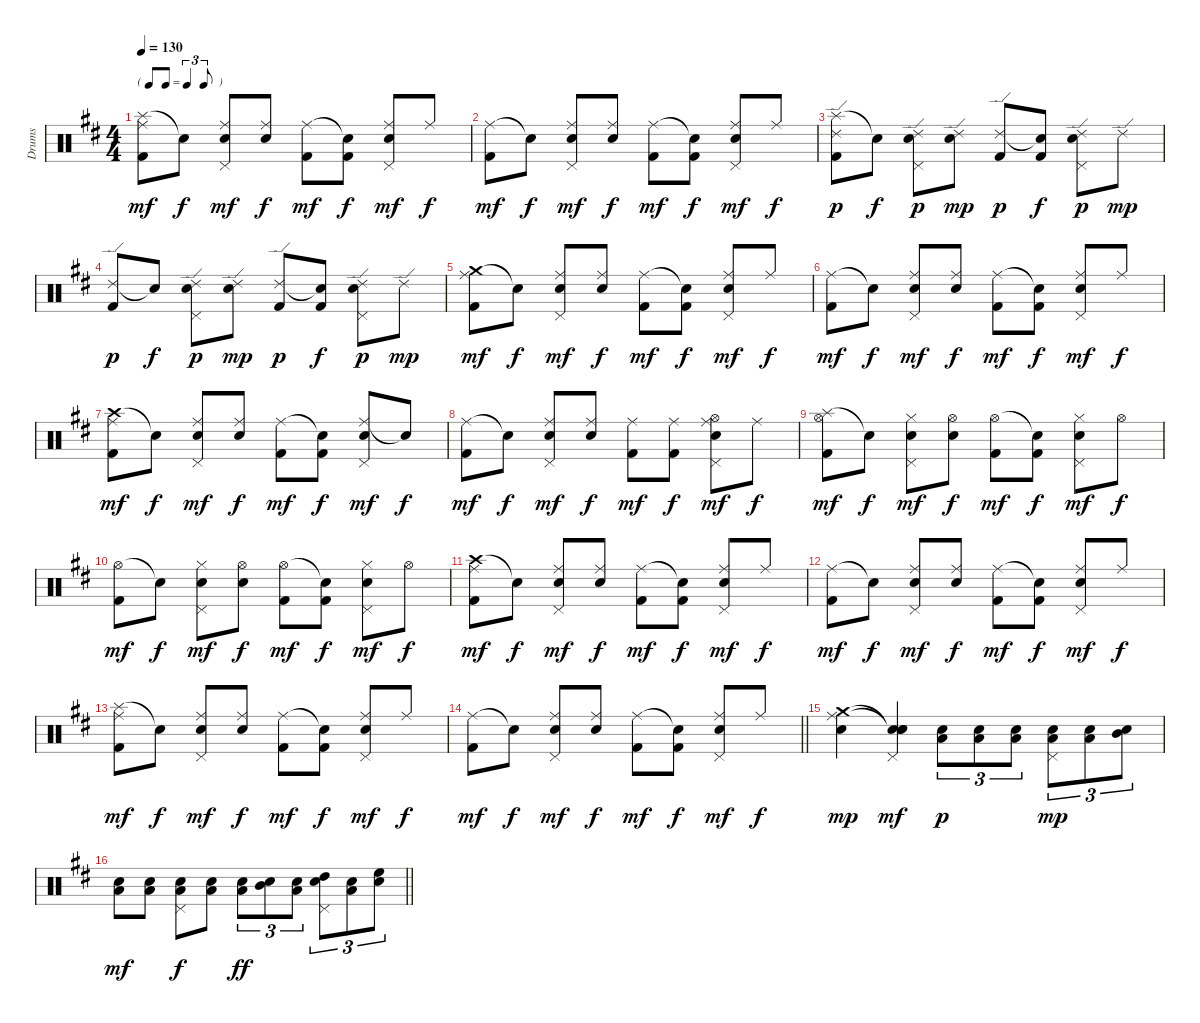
\track ("Drums" "Drums") {instrument percussion}
\staff {score}
\articulation defaults
\ts (4 4)
\tf triplet8th
\tempo 130
\clef neutral
\ks d
("Splash (hit)" "Ride (middle)" "Kick (hit) 2").8{dy mf} "Snare (hit)"{t}.8{dy f} ("Ride (middle)" "Pedal Hi-Hat (hit)" "Snare (hit) 2").8{dy mf} ("Ride (middle)" "Snare (hit) 2").8{dy f} ("Ride (middle)" "Kick (hit) 2").8{dy mf} ("Snare (hit)"{t} "Kick (hit) 2").8{dy f} ("Ride (middle)" "Pedal Hi-Hat (hit)" "Snare (hit) 2").8{dy mf} "Ride (middle)".8{dy f} |
("Ride (middle)" "Kick (hit) 2").8{dy mf} "Snare (hit)"{t}.8{dy f} ("Ride (middle)" "Pedal Hi-Hat (hit)" "Snare (hit) 2").8{dy mf} ("Ride (middle)" "Snare (hit) 2").8{dy f} ("Ride (middle)" "Kick (hit) 2").8{dy mf} ("Snare (hit)"{t} "Kick (hit) 2").8{dy f} ("Ride (middle)" "Pedal Hi-Hat (hit)" "Snare (hit) 2").8{dy mf} "Ride (middle)".8{dy f} |
("Splash (hit)" "Ride (edge) 2" "Kick (hit) 2").8{dy p} "Snare (hit)"{t}.8{dy f} ("Ride (edge) 2" "Pedal Hi-Hat (hit)" "Snare (hit) 2").8{dy p} ("Ride (edge) 2" "Snare (hit) 2").8{dy mp} ("Ride (edge) 2" "Kick (hit) 2").8{dy p} ("Snare (hit)"{t} "Kick (hit) 2").8{dy f} ("Ride (edge) 2" "Pedal Hi-Hat (hit)" "Snare (hit) 2").8{dy p} "Ride (edge) 2".8{dy mp} |
("Ride (edge) 2" "Kick (hit) 2").8{dy p} "Snare (hit)"{t}.8{dy f} ("Ride (edge) 2" "Pedal Hi-Hat (hit)" "Snare (hit) 2").8{dy p} ("Ride (edge) 2" "Snare (hit) 2").8{dy mp} ("Ride (edge) 2" "Kick (hit) 2").8{dy p} ("Snare (hit)"{t} "Kick (hit) 2").8{dy f} ("Ride (edge) 2" "Pedal Hi-Hat (hit)" "Snare (hit) 2").8{dy p} "Ride (edge) 2".8{dy mp} |
("Crash medium (hit)" "Ride (middle)" "Kick (hit) 2").8{dy mf} "Snare (hit)"{t}.8{dy f} ("Ride (middle)" "Pedal Hi-Hat (hit)" "Snare (hit) 2").8{dy mf} ("Ride (middle)" "Snare (hit) 2").8{dy f} ("Ride (middle)" "Kick (hit) 2").8{dy mf} ("Snare (hit)"{t} "Kick (hit) 2").8{dy f} ("Ride (middle)" "Pedal Hi-Hat (hit)" "Snare (hit) 2").8{dy mf} "Ride (middle)".8{dy f} |
("Ride (middle)" "Kick (hit) 2").8{dy mf} "Snare (hit)"{t}.8{dy f} ("Ride (middle)" "Pedal Hi-Hat (hit)" "Snare (hit) 2").8{dy mf} ("Ride (middle)" "Snare (hit) 2").8{dy f} ("Ride (middle)" "Kick (hit) 2").8{dy mf} ("Snare (hit)"{t} "Kick (hit) 2").8{dy f} ("Ride (middle)" "Pedal Hi-Hat (hit)" "Snare (hit) 2").8{dy mf} "Ride (middle)".8{dy f} |
("Crash high (hit)" "Ride (middle)" "Kick (hit) 2").8{dy mf} "Snare (hit)"{t}.8{dy f} ("Ride (middle)" "Pedal Hi-Hat (hit)" "Snare (hit) 2").8{dy mf} ("Ride (middle)" "Snare (hit) 2").8{dy f} ("Ride (middle)" "Kick (hit) 2").8{dy mf} ("Snare (hit)"{t} "Kick (hit) 2").8{dy f} ("Ride (middle)" "Pedal Hi-Hat (hit)" "Snare (hit) 2").8{dy mf} "Snare (hit)"{t}.8{dy f} |
("Ride (middle)" "Kick (hit) 2").8{dy mf} "Snare (hit)"{t}.8{dy f} ("Ride (middle)" "Pedal Hi-Hat (hit)" "Snare (hit) 2").8{dy mf} ("Ride (middle)" "Snare (hit) 2").8{dy f} ("Ride (middle)" "Kick (hit) 2").8{dy mf} ("Ride (middle)" "Kick (hit) 2").8{dy f} ("Hi-Hat (open)" "Ride (middle)" "Pedal Hi-Hat (hit)" "Snare (hit) 2").8{dy mf} "Ride (middle)".8{dy f} |
("Splash (hit)" "Hi-Hat (open)" "Kick (hit) 2").8{dy mf} "Snare (hit)"{t}.8{dy f} ("Hi-Hat (closed)" "Pedal Hi-Hat (hit)" "Snare (hit) 2").8{dy mf} ("Hi-Hat (open)" "Snare (hit) 2").8{dy f} ("Hi-Hat (open)" "Kick (hit) 2").8{dy mf} ("Snare (hit)"{t} "Kick (hit) 2").8{dy f} ("Hi-Hat (closed)" "Pedal Hi-Hat (hit)" "Snare (hit) 2").8{dy mf} "Hi-Hat (open)".8{dy f} |
("Hi-Hat (open)" "Kick (hit) 2").8{dy mf} "Snare (hit)"{t}.8{dy f} ("Hi-Hat (closed)" "Pedal Hi-Hat (hit)" "Snare (hit) 2").8{dy mf} ("Hi-Hat (open)" "Snare (hit) 2").8{dy f} ("Hi-Hat (open)" "Kick (hit) 2").8{dy mf} ("Snare (hit)"{t} "Kick (hit) 2").8{dy f} ("Hi-Hat (closed)" "Pedal Hi-Hat (hit)" "Snare (hit) 2").8{dy mf} "Hi-Hat (open)".8{dy f} |
("Crash high (hit)" "Ride (middle)" "Kick (hit) 2").8{dy mf} "Snare (hit)"{t}.8{dy f} ("Ride (middle)" "Pedal Hi-Hat (hit)" "Snare (hit) 2").8{dy mf} ("Ride (middle)" "Snare (hit) 2").8{dy f} ("Ride (middle)" "Kick (hit) 2").8{dy mf} ("Snare (hit)"{t} "Kick (hit) 2").8{dy f} ("Ride (middle)" "Pedal Hi-Hat (hit)" "Snare (hit) 2").8{dy mf} "Ride (middle)".8{dy f} |
("Ride (middle)" "Kick (hit) 2").8{dy mf} "Snare (hit)"{t}.8{dy f} ("Ride (middle)" "Pedal Hi-Hat (hit)" "Snare (hit) 2").8{dy mf} ("Ride (middle)" "Snare (hit) 2").8{dy f} ("Ride (middle)" "Kick (hit) 2").8{dy mf} ("Snare (hit)"{t} "Kick (hit) 2").8{dy f} ("Ride (middle)" "Pedal Hi-Hat (hit)" "Snare (hit) 2").8{dy mf} "Ride (middle)".8{dy f} |
("Splash (hit)" "Ride (middle)" "Kick (hit) 2").8{dy mf} "Snare (hit)"{t}.8{dy f} ("Ride (middle)" "Pedal Hi-Hat (hit)" "Snare (hit) 2").8{dy mf} ("Ride (middle)" "Snare (hit) 2").8{dy f} ("Ride (middle)" "Kick (hit) 2").8{dy mf} ("Snare (hit)"{t} "Kick (hit) 2").8{dy f} ("Ride (middle)" "Pedal Hi-Hat (hit)" "Snare (hit) 2").8{dy mf} "Ride (middle)".8{dy f} |
\barLineRight lightlight
("Ride (middle)" "Kick (hit) 2").8{dy mf} "Snare (hit)"{t}.8{dy f} ("Ride (middle)" "Pedal Hi-Hat (hit)" "Snare (hit) 2").8{dy mf} ("Ride (middle)" "Snare (hit) 2").8{dy f} ("Ride (middle)" "Kick (hit) 2").8{dy mf} ("Snare (hit)"{t} "Kick (hit) 2").8{dy f} ("Ride (middle)" "Pedal Hi-Hat (hit)" "Snare (hit) 2").8{dy mf} "Ride (middle)".8{dy f} |
("Crash medium (hit)" "Ride (middle)" "Snare (hit) 2").4{dy mp} ("Snare (hit)"{t} "Snare (hit)"{t} "Pedal Hi-Hat (hit)" "Snare (hit)").4{dy mf} ("Low Tom (hit)" "Snare (hit) 2").8{tu (3 2) dy p} ("Low Tom (hit)" "Snare (hit) 2").8{tu (3 2)} ("Low Tom (hit)" "Snare (hit) 2").8{tu (3 2)} ("Pedal Hi-Hat (hit)" "Low Tom (hit)" "Snare (hit) 2").8{tu (3 2) dy mp} ("Low Tom (hit)" "Snare (hit) 2").8{tu (3 2)} ("Mid Tom (hit)" "Snare (hit) 2").8{tu (3 2)} |
\barLineRight lightlight
("Low Tom (hit)" "Snare (hit) 2").8{dy mf} ("Low Tom (hit)" "Snare (hit) 2").8 ("Pedal Hi-Hat (hit)" "Low Tom (hit)" "Snare (hit) 2").8{dy f} ("Low Tom (hit)" "Snare (hit) 2").8 ("Low Tom (hit)" "Snare (hit) 2").8{tu (3 2) dy ff} ("Mid Tom (hit)" "Snare (hit) 2").8{tu (3 2)} ("Low Tom (hit)" "Snare (hit) 2").8{tu (3 2)} ("Pedal Hi-Hat (hit)" "High Tom (hit)" "Snare (hit) 2").8{tu (3 2)} ("Low Tom (hit)" "Snare (hit) 2").8{tu (3 2)} ("High Floor Tom (hit)" "Snare (hit) 2").8{tu (3 2)}
